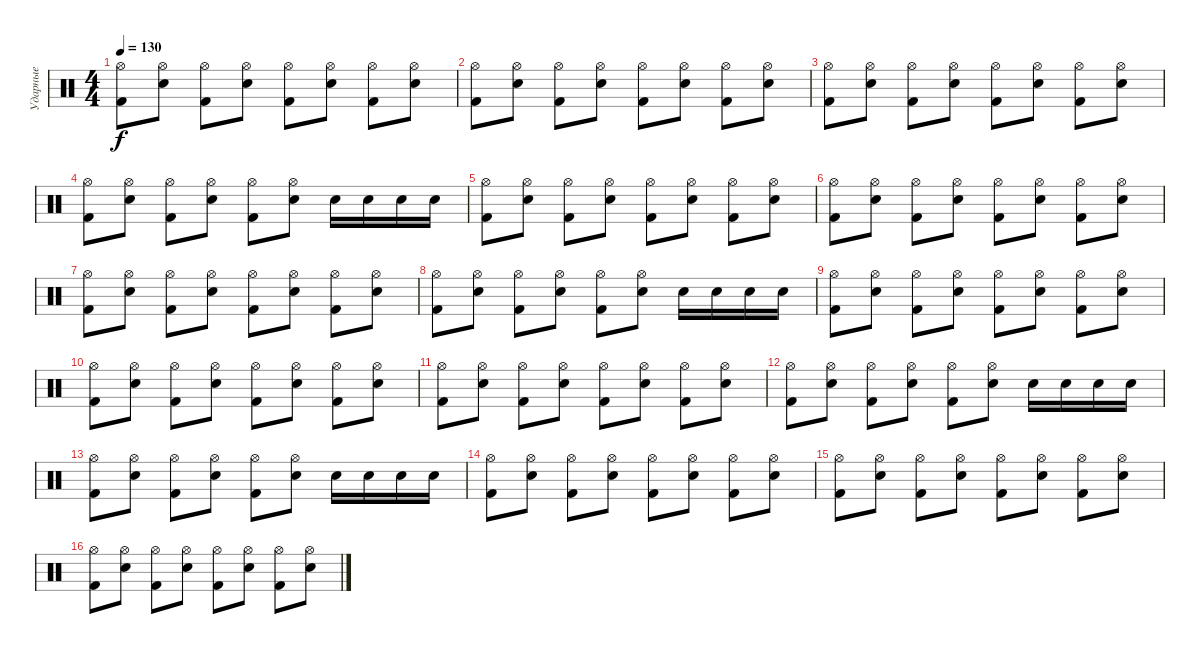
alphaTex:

\track ("Ударные" "Ударные") {instrument percussion}
\staff {score}
\articulation defaults
\ts (4 4)
\tempo 130
\clef neutral
\ks c
("Hi-Hat (open)" "Kick (hit) 2").8{dy f} ("Hi-Hat (open)" "Electric Snare (hit)").8 ("Hi-Hat (open)" "Kick (hit) 2").8 ("Hi-Hat (open)" "Electric Snare (hit)").8 ("Hi-Hat (open)" "Kick (hit) 2").8 ("Hi-Hat (open)" "Electric Snare (hit)").8 ("Hi-Hat (open)" "Kick (hit) 2").8 ("Hi-Hat (open)" "Electric Snare (hit)").8 |
("Hi-Hat (open)" "Kick (hit) 2").8 ("Hi-Hat (open)" "Electric Snare (hit)").8 ("Hi-Hat (open)" "Kick (hit) 2").8 ("Hi-Hat (open)" "Electric Snare (hit)").8 ("Hi-Hat (open)" "Kick (hit) 2").8 ("Hi-Hat (open)" "Electric Snare (hit)").8 ("Hi-Hat (open)" "Kick (hit) 2").8 ("Hi-Hat (open)" "Electric Snare (hit)").8 |
("Hi-Hat (open)" "Kick (hit) 2").8 ("Hi-Hat (open)" "Electric Snare (hit)").8 ("Hi-Hat (open)" "Kick (hit) 2").8 ("Hi-Hat (open)" "Electric Snare (hit)").8 ("Hi-Hat (open)" "Kick (hit) 2").8 ("Hi-Hat (open)" "Electric Snare (hit)").8 ("Hi-Hat (open)" "Kick (hit) 2").8 ("Hi-Hat (open)" "Electric Snare (hit)").8 |
("Hi-Hat (open)" "Kick (hit) 2").8 ("Hi-Hat (open)" "Electric Snare (hit)").8 ("Hi-Hat (open)" "Kick (hit) 2").8 ("Hi-Hat (open)" "Electric Snare (hit)").8 ("Hi-Hat (open)" "Kick (hit) 2").8 ("Hi-Hat (open)" "Electric Snare (hit)").8 "Electric Snare (hit)".16 "Electric Snare (hit)".16 "Electric Snare (hit)".16 "Electric Snare (hit)".16 |
("Hi-Hat (open)" "Kick (hit) 2").8 ("Hi-Hat (open)" "Electric Snare (hit)").8 ("Hi-Hat (open)" "Kick (hit) 2").8 ("Hi-Hat (open)" "Electric Snare (hit)").8 ("Hi-Hat (open)" "Kick (hit) 2").8 ("Hi-Hat (open)" "Electric Snare (hit)").8 ("Hi-Hat (open)" "Kick (hit) 2").8 ("Hi-Hat (open)" "Electric Snare (hit)").8 |
("Hi-Hat (open)" "Kick (hit) 2").8 ("Hi-Hat (open)" "Electric Snare (hit)").8 ("Hi-Hat (open)" "Kick (hit) 2").8 ("Hi-Hat (open)" "Electric Snare (hit)").8 ("Hi-Hat (open)" "Kick (hit) 2").8 ("Hi-Hat (open)" "Electric Snare (hit)").8 ("Hi-Hat (open)" "Kick (hit) 2").8 ("Hi-Hat (open)" "Electric Snare (hit)").8 |
("Hi-Hat (open)" "Kick (hit) 2").8 ("Hi-Hat (open)" "Electric Snare (hit)").8 ("Hi-Hat (open)" "Kick (hit) 2").8 ("Hi-Hat (open)" "Electric Snare (hit)").8 ("Hi-Hat (open)" "Kick (hit) 2").8 ("Hi-Hat (open)" "Electric Snare (hit)").8 ("Hi-Hat (open)" "Kick (hit) 2").8 ("Hi-Hat (open)" "Electric Snare (hit)").8 |
("Hi-Hat (open)" "Kick (hit) 2").8 ("Hi-Hat (open)" "Electric Snare (hit)").8 ("Hi-Hat (open)" "Kick (hit) 2").8 ("Hi-Hat (open)" "Electric Snare (hit)").8 ("Hi-Hat (open)" "Kick (hit) 2").8 ("Hi-Hat (open)" "Electric Snare (hit)").8 "Electric Snare (hit)".16 "Electric Snare (hit)".16 "Electric Snare (hit)".16 "Electric Snare (hit)".16 |
("Hi-Hat (open)" "Kick (hit) 2").8 ("Hi-Hat (open)" "Electric Snare (hit)").8 ("Hi-Hat (open)" "Kick (hit) 2").8 ("Hi-Hat (open)" "Electric Snare (hit)").8 ("Hi-Hat (open)" "Kick (hit) 2").8 ("Hi-Hat (open)" "Electric Snare (hit)").8 ("Hi-Hat (open)" "Kick (hit) 2").8 ("Hi-Hat (open)" "Electric Snare (hit)").8 |
("Hi-Hat (open)" "Kick (hit) 2").8 ("Hi-Hat (open)" "Electric Snare (hit)").8 ("Hi-Hat (open)" "Kick (hit) 2").8 ("Hi-Hat (open)" "Electric Snare (hit)").8 ("Hi-Hat (open)" "Kick (hit) 2").8 ("Hi-Hat (open)" "Electric Snare (hit)").8 ("Hi-Hat (open)" "Kick (hit) 2").8 ("Hi-Hat (open)" "Electric Snare (hit)").8 |
("Hi-Hat (open)" "Kick (hit) 2").8 ("Hi-Hat (open)" "Electric Snare (hit)").8 ("Hi-Hat (open)" "Kick (hit) 2").8 ("Hi-Hat (open)" "Electric Snare (hit)").8 ("Hi-Hat (open)" "Kick (hit) 2").8 ("Hi-Hat (open)" "Electric Snare (hit)").8 ("Hi-Hat (open)" "Kick (hit) 2").8 ("Hi-Hat (open)" "Electric Snare (hit)").8 |
("Hi-Hat (open)" "Kick (hit) 2").8 ("Hi-Hat (open)" "Electric Snare (hit)").8 ("Hi-Hat (open)" "Kick (hit) 2").8 ("Hi-Hat (open)" "Electric Snare (hit)").8 ("Hi-Hat (open)" "Kick (hit) 2").8 ("Hi-Hat (open)" "Electric Snare (hit)").8 "Electric Snare (hit)".16 "Electric Snare (hit)".16 "Electric Snare (hit)".16 "Electric Snare (hit)".16 |
("Hi-Hat (open)" "Kick (hit) 2").8 ("Hi-Hat (open)" "Electric Snare (hit)").8 ("Hi-Hat (open)" "Kick (hit) 2").8 ("Hi-Hat (open)" "Electric Snare (hit)").8 ("Hi-Hat (open)" "Kick (hit) 2").8 ("Hi-Hat (open)" "Electric Snare (hit)").8 "Electric Snare (hit)".16 "Electric Snare (hit)".16 "Electric Snare (hit)".16 "Electric Snare (hit)".16 |
("Hi-Hat (open)" "Kick (hit) 2").8 ("Hi-Hat (open)" "Electric Snare (hit)").8 ("Hi-Hat (open)" "Kick (hit) 2").8 ("Hi-Hat (open)" "Electric Snare (hit)").8 ("Hi-Hat (open)" "Kick (hit) 2").8 ("Hi-Hat (open)" "Electric Snare (hit)").8 ("Hi-Hat (open)" "Kick (hit) 2").8 ("Hi-Hat (open)" "Electric Snare (hit)").8 |
("Hi-Hat (open)" "Kick (hit) 2").8 ("Hi-Hat (open)" "Electric Snare (hit)").8 ("Hi-Hat (open)" "Kick (hit) 2").8 ("Hi-Hat (open)" "Electric Snare (hit)").8 ("Hi-Hat (open)" "Kick (hit) 2").8 ("Hi-Hat (open)" "Electric Snare (hit)").8 ("Hi-Hat (open)" "Kick (hit) 2").8 ("Hi-Hat (open)" "Electric Snare (hit)").8 |
("Hi-Hat (open)" "Kick (hit) 2").8 ("Hi-Hat (open)" "Electric Snare (hit)").8 ("Hi-Hat (open)" "Kick (hit) 2").8 ("Hi-Hat (open)" "Electric Snare (hit)").8 ("Hi-Hat (open)" "Kick (hit) 2").8 ("Hi-Hat (open)" "Electric Snare (hit)").8 ("Hi-Hat (open)" "Kick (hit) 2").8 ("Hi-Hat (open)" "Electric Snare (hit)").8
